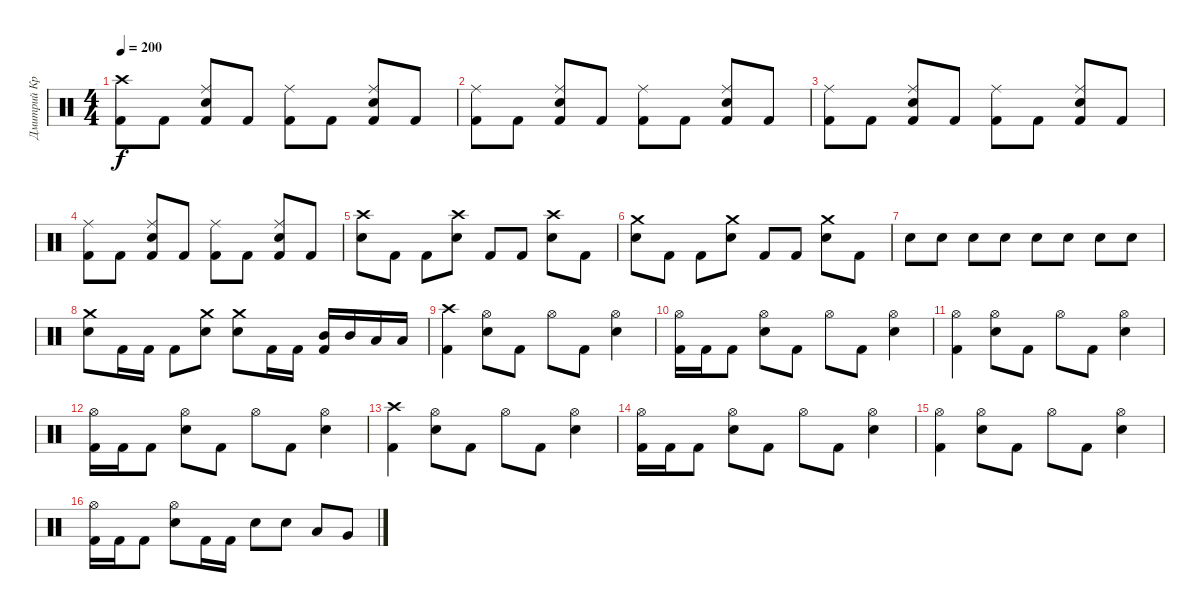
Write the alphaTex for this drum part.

\track ("Дмитрий Кривенков" "Дмитрий Кр") {instrument percussion}
\staff {score}
\articulation defaults
\ts (4 4)
\tempo 200
\clef neutral
\ks c
("Crash high (hit)" "Kick (hit) 2").8{dy f} "Kick (hit) 2".8 ("Ride (middle)" "Electric Snare (hit)" "Kick (hit) 2").8 "Kick (hit) 2".8 ("Ride (middle)" "Kick (hit) 2").8 "Kick (hit) 2".8 ("Ride (middle)" "Electric Snare (hit)" "Kick (hit) 2").8 "Kick (hit) 2".8 |
("Ride (middle)" "Kick (hit) 2").8 "Kick (hit) 2".8 ("Ride (middle)" "Electric Snare (hit)" "Kick (hit) 2").8 "Kick (hit) 2".8 ("Ride (middle)" "Kick (hit) 2").8 "Kick (hit) 2".8 ("Ride (middle)" "Electric Snare (hit)" "Kick (hit) 2").8 "Kick (hit) 2".8 |
("Ride (middle)" "Kick (hit) 2").8 "Kick (hit) 2".8 ("Ride (middle)" "Electric Snare (hit)" "Kick (hit) 2").8 "Kick (hit) 2".8 ("Ride (middle)" "Kick (hit) 2").8 "Kick (hit) 2".8 ("Ride (middle)" "Electric Snare (hit)" "Kick (hit) 2").8 "Kick (hit) 2".8 |
("Ride (middle)" "Kick (hit) 2").8 "Kick (hit) 2".8 ("Ride (middle)" "Electric Snare (hit)" "Kick (hit) 2").8 "Kick (hit) 2".8 ("Ride (middle)" "Kick (hit) 2").8 "Kick (hit) 2".8 ("Ride (middle)" "Electric Snare (hit)" "Kick (hit) 2").8 "Kick (hit) 2".8 |
("Crash high (hit)" "Electric Snare (hit)").8 "Kick (hit) 2".8 "Kick (hit) 2".8 ("Crash high (hit)" "Electric Snare (hit)").8 "Kick (hit) 2".8 "Kick (hit) 2".8 ("Crash high (hit)" "Electric Snare (hit)").8 "Kick (hit) 2".8 |
("Crash medium (hit)" "Electric Snare (hit)").8 "Kick (hit) 2".8 "Kick (hit) 2".8 ("Crash medium (hit)" "Electric Snare (hit)").8 "Kick (hit) 2".8 "Kick (hit) 2".8 ("Crash medium (hit)" "Electric Snare (hit)").8 "Kick (hit) 2".8 |
"Electric Snare (hit)".8 "Electric Snare (hit)".8 "Electric Snare (hit)".8 "Electric Snare (hit)".8 "Electric Snare (hit)".8 "Electric Snare (hit)".8 "Electric Snare (hit)".8 "Electric Snare (hit)".8 |
("Crash medium (hit)" "Electric Snare (hit)").8 "Kick (hit) 2".16 "Kick (hit) 2".16 "Kick (hit) 2".8 ("Crash medium (hit)" "Electric Snare (hit)").8 ("Crash medium (hit)" "Electric Snare (hit)").8 "Kick (hit) 2".16 "Kick (hit) 2".16 ("Mid Tom (hit)" "Kick (hit) 2").16 "Mid Tom (hit)".16 "Low Tom (hit)".16 "Low Tom (hit)".16 |
("Crash high (hit)" "Kick (hit) 2").4 ("Hi-Hat (open)" "Electric Snare (hit)").8 "Kick (hit) 2".8 "Hi-Hat (open)".8 "Kick (hit) 2".8 ("Hi-Hat (open)" "Electric Snare (hit)").4 |
("Hi-Hat (open)" "Kick (hit) 2").16 "Kick (hit) 2".16 "Kick (hit) 2".8 ("Hi-Hat (open)" "Electric Snare (hit)").8 "Kick (hit) 2".8 "Hi-Hat (open)".8 "Kick (hit) 2".8 ("Hi-Hat (open)" "Electric Snare (hit)").4 |
("Hi-Hat (open)" "Kick (hit) 2").4 ("Hi-Hat (open)" "Electric Snare (hit)").8 "Kick (hit) 2".8 "Hi-Hat (open)".8 "Kick (hit) 2".8 ("Hi-Hat (open)" "Electric Snare (hit)").4 |
("Hi-Hat (open)" "Kick (hit) 2").16 "Kick (hit) 2".16 "Kick (hit) 2".8 ("Hi-Hat (open)" "Electric Snare (hit)").8 "Kick (hit) 2".8 "Hi-Hat (open)".8 "Kick (hit) 2".8 ("Hi-Hat (open)" "Electric Snare (hit)").4 |
("Crash high (hit)" "Kick (hit) 2").4 ("Hi-Hat (open)" "Electric Snare (hit)").8 "Kick (hit) 2".8 "Hi-Hat (open)".8 "Kick (hit) 2".8 ("Hi-Hat (open)" "Electric Snare (hit)").4 |
("Hi-Hat (open)" "Kick (hit) 2").16 "Kick (hit) 2".16 "Kick (hit) 2".8 ("Hi-Hat (open)" "Electric Snare (hit)").8 "Kick (hit) 2".8 "Hi-Hat (open)".8 "Kick (hit) 2".8 ("Hi-Hat (open)" "Electric Snare (hit)").4 |
("Hi-Hat (open)" "Kick (hit) 2").4 ("Hi-Hat (open)" "Electric Snare (hit)").8 "Kick (hit) 2".8 "Hi-Hat (open)".8 "Kick (hit) 2".8 ("Hi-Hat (open)" "Electric Snare (hit)").4 |
("Hi-Hat (open)" "Kick (hit) 2").16 "Kick (hit) 2".16 "Kick (hit) 2".8 ("Hi-Hat (open)" "Electric Snare (hit)").8 "Kick (hit) 2".16 "Kick (hit) 2".16 "Electric Snare (hit)".8 "Electric Snare (hit)".8 "Low Tom (hit)".8 "Very Low Tom (hit)".8
